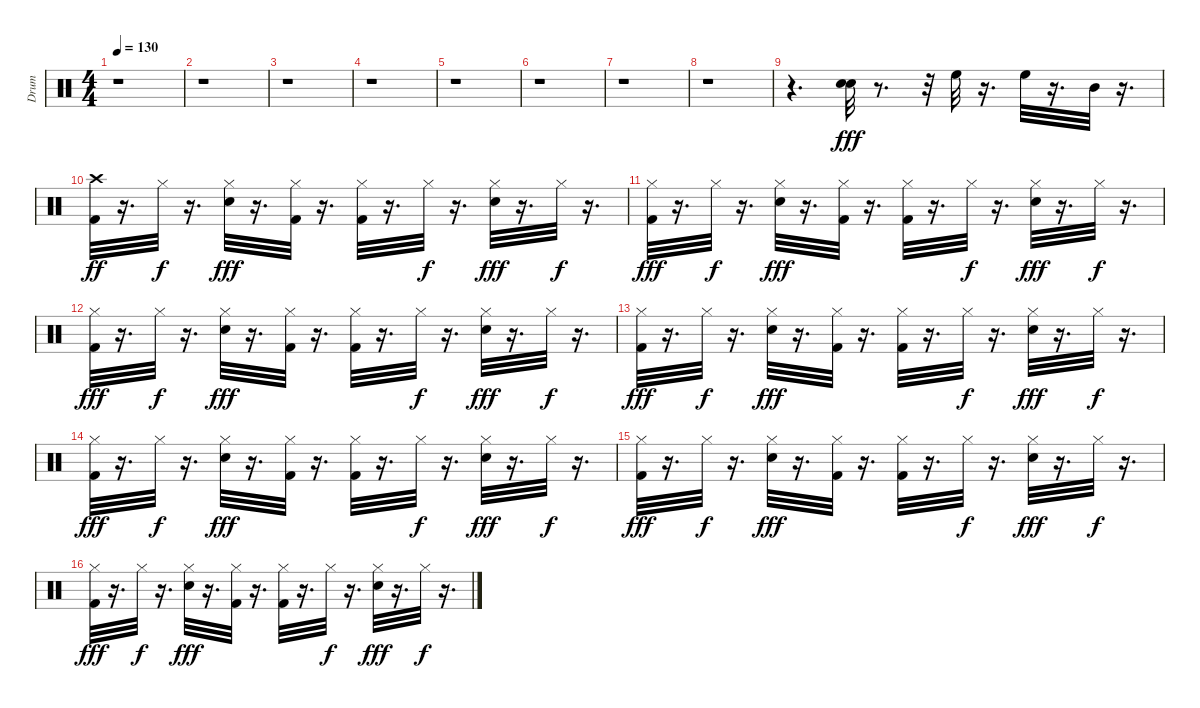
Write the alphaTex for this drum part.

\track ("Drum" "Drum") {instrument percussion}
\staff {score}
\articulation defaults
\ts (4 4)
\tempo 130
\clef neutral
\ks c
r.1{dy fff} |
r.1 |
r.1 |
r.1 |
r.1 |
r.1 |
r.1 |
r.1 |
r.4{d} ("Electric Snare (hit)" "Electric Snare (hit)").32 r.8{d} r.32 "High Floor Tom (hit)".32 r.16{d} "High Floor Tom (hit)".32 r.16{d} "Mid Tom (hit)".32 r.16{d} |
("Kick (hit) 2" "Crash high (hit)").32{dy ff} r.16{d} "Hi-Hat (closed)".32{dy f} r.16{d} ("Hi-Hat (closed)" "Electric Snare (hit)").32{dy fff} r.16{d} ("Kick (hit) 2" "Hi-Hat (closed)").32 r.16{d} ("Kick (hit) 2" "Hi-Hat (closed)").32 r.16{d} "Hi-Hat (closed)".32{dy f} r.16{d} ("Hi-Hat (closed)" "Electric Snare (hit)").32{dy fff} r.16{d} "Hi-Hat (closed)".32{dy f} r.16{d} |
("Kick (hit) 2" "Hi-Hat (closed)").32{dy fff} r.16{d} "Hi-Hat (closed)".32{dy f} r.16{d} ("Hi-Hat (closed)" "Electric Snare (hit)").32{dy fff} r.16{d} ("Kick (hit) 2" "Hi-Hat (closed)").32 r.16{d} ("Kick (hit) 2" "Hi-Hat (closed)").32 r.16{d} "Hi-Hat (closed)".32{dy f} r.16{d} ("Hi-Hat (closed)" "Electric Snare (hit)").32{dy fff} r.16{d} "Hi-Hat (closed)".32{dy f} r.16{d} |
("Kick (hit) 2" "Hi-Hat (closed)").32{dy fff} r.16{d} "Hi-Hat (closed)".32{dy f} r.16{d} ("Hi-Hat (closed)" "Electric Snare (hit)").32{dy fff} r.16{d} ("Kick (hit) 2" "Hi-Hat (closed)").32 r.16{d} ("Kick (hit) 2" "Hi-Hat (closed)").32 r.16{d} "Hi-Hat (closed)".32{dy f} r.16{d} ("Hi-Hat (closed)" "Electric Snare (hit)").32{dy fff} r.16{d} "Hi-Hat (closed)".32{dy f} r.16{d} |
("Kick (hit) 2" "Hi-Hat (closed)").32{dy fff} r.16{d} "Hi-Hat (closed)".32{dy f} r.16{d} ("Hi-Hat (closed)" "Electric Snare (hit)").32{dy fff} r.16{d} ("Kick (hit) 2" "Hi-Hat (closed)").32 r.16{d} ("Kick (hit) 2" "Hi-Hat (closed)").32 r.16{d} "Hi-Hat (closed)".32{dy f} r.16{d} ("Hi-Hat (closed)" "Electric Snare (hit)").32{dy fff} r.16{d} "Hi-Hat (closed)".32{dy f} r.16{d} |
("Kick (hit) 2" "Hi-Hat (closed)").32{dy fff} r.16{d} "Hi-Hat (closed)".32{dy f} r.16{d} ("Hi-Hat (closed)" "Electric Snare (hit)").32{dy fff} r.16{d} ("Kick (hit) 2" "Hi-Hat (closed)").32 r.16{d} ("Kick (hit) 2" "Hi-Hat (closed)").32 r.16{d} "Hi-Hat (closed)".32{dy f} r.16{d} ("Hi-Hat (closed)" "Electric Snare (hit)").32{dy fff} r.16{d} "Hi-Hat (closed)".32{dy f} r.16{d} |
("Kick (hit) 2" "Hi-Hat (closed)").32{dy fff} r.16{d} "Hi-Hat (closed)".32{dy f} r.16{d} ("Hi-Hat (closed)" "Electric Snare (hit)").32{dy fff} r.16{d} ("Kick (hit) 2" "Hi-Hat (closed)").32 r.16{d} ("Kick (hit) 2" "Hi-Hat (closed)").32 r.16{d} "Hi-Hat (closed)".32{dy f} r.16{d} ("Hi-Hat (closed)" "Electric Snare (hit)").32{dy fff} r.16{d} "Hi-Hat (closed)".32{dy f} r.16{d} |
("Kick (hit) 2" "Hi-Hat (closed)").32{dy fff} r.16{d} "Hi-Hat (closed)".32{dy f} r.16{d} ("Hi-Hat (closed)" "Electric Snare (hit)").32{dy fff} r.16{d} ("Kick (hit) 2" "Hi-Hat (closed)").32 r.16{d} ("Kick (hit) 2" "Hi-Hat (closed)").32 r.16{d} "Hi-Hat (closed)".32{dy f} r.16{d} ("Hi-Hat (closed)" "Electric Snare (hit)").32{dy fff} r.16{d} "Hi-Hat (closed)".32{dy f} r.16{d}
